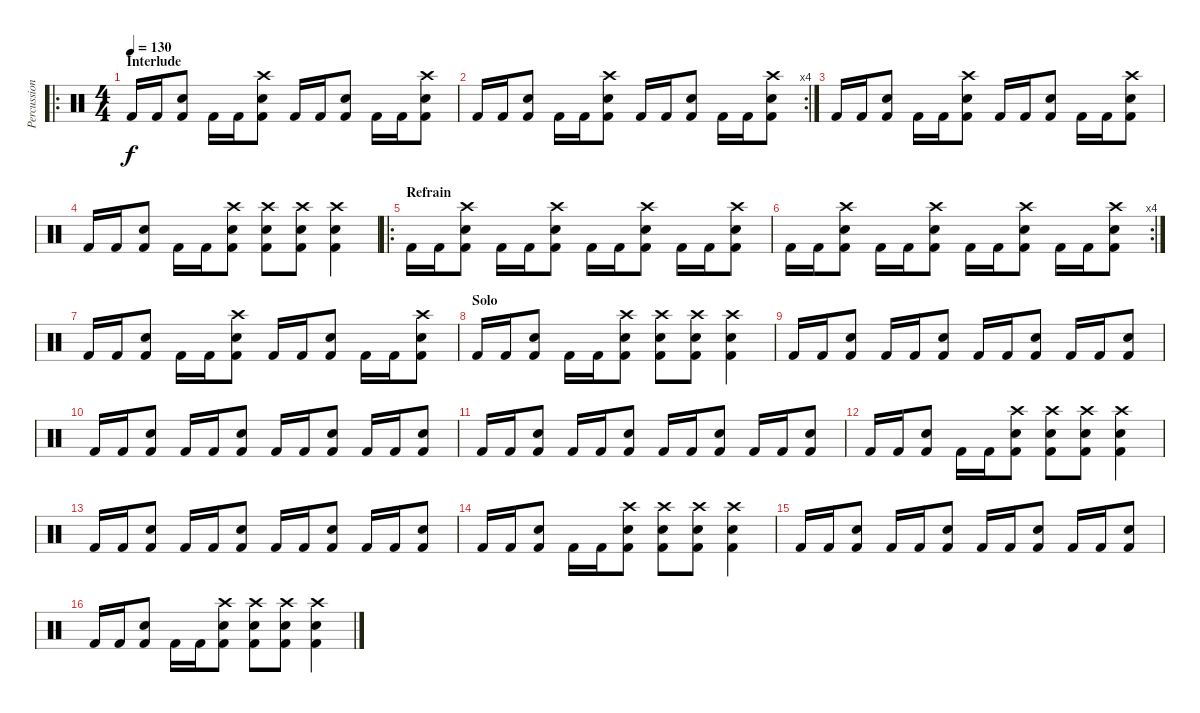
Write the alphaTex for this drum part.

\track ("Percussions" "Percussion") {instrument percussion}
\staff {score}
\articulation defaults
\ro
\ts (4 4)
\section ("" "Interlude")
\tempo 130
\clef neutral
\ks c "Kick (hit) 2".16{dy f} "Kick (hit) 2".16
("Snare (hit) 2" "Kick (hit) 2").8 "Kick (hit) 2".16 "Kick (hit) 2".16 ("Snare (hit) 2" "Kick (hit) 2" "Crash high (hit)").8 "Kick (hit) 2".16 "Kick (hit) 2".16 ("Snare (hit) 2" "Kick (hit) 2").8 "Kick (hit) 2".16 "Kick (hit) 2".16 ("Snare (hit) 2" "Kick (hit) 2" "Crash high (hit)").8 |
\rc 4 "Kick (hit) 2".16 "Kick (hit) 2".16
("Snare (hit) 2" "Kick (hit) 2").8 "Kick (hit) 2".16 "Kick (hit) 2".16 ("Snare (hit) 2" "Kick (hit) 2" "Crash high (hit)").8 "Kick (hit) 2".16 "Kick (hit) 2".16 ("Snare (hit) 2" "Kick (hit) 2").8 "Kick (hit) 2".16 "Kick (hit) 2".16 ("Snare (hit) 2" "Kick (hit) 2" "Crash high (hit)").8 |
"Kick (hit) 2".16 "Kick (hit) 2".16 ("Snare (hit) 2" "Kick (hit) 2").8 "Kick (hit) 2".16 "Kick (hit) 2".16 ("Snare (hit) 2" "Kick (hit) 2" "Crash high (hit)").8 "Kick (hit) 2".16 "Kick (hit) 2".16 ("Snare (hit) 2" "Kick (hit) 2").8 "Kick (hit) 2".16 "Kick (hit) 2".16 ("Snare (hit) 2" "Kick (hit) 2" "Crash high (hit)").8 |
"Kick (hit) 2".16 "Kick (hit) 2".16 ("Snare (hit) 2" "Kick (hit) 2").8 "Kick (hit) 2".16 "Kick (hit) 2".16 ("Snare (hit) 2" "Kick (hit) 2" "Crash high (hit)").8 ("Snare (hit) 2" "Kick (hit) 2" "Crash high (hit)").8 ("Snare (hit) 2" "Kick (hit) 2" "Crash high (hit)").8 ("Snare (hit) 2" "Kick (hit) 2" "Crash high (hit)").4 |
\ro
\section ("" "Refrain")
"Kick (hit) 2".16 "Kick (hit) 2".16 ("Snare (hit) 2" "Kick (hit) 2" "Crash high (hit)").8 "Kick (hit) 2".16 "Kick (hit) 2".16 ("Snare (hit) 2" "Kick (hit) 2" "Crash high (hit)").8 "Kick (hit) 2".16 "Kick (hit) 2".16 ("Snare (hit) 2" "Kick (hit) 2" "Crash high (hit)").8 "Kick (hit) 2".16 "Kick (hit) 2".16 ("Snare (hit) 2" "Kick (hit) 2" "Crash high (hit)").8 |
\rc 4 "Kick (hit) 2".16 "Kick (hit) 2".16
("Snare (hit) 2" "Kick (hit) 2" "Crash high (hit)").8 "Kick (hit) 2".16 "Kick (hit) 2".16 ("Snare (hit) 2" "Kick (hit) 2" "Crash high (hit)").8 "Kick (hit) 2".16 "Kick (hit) 2".16 ("Snare (hit) 2" "Kick (hit) 2" "Crash high (hit)").8 "Kick (hit) 2".16 "Kick (hit) 2".16 ("Snare (hit) 2" "Kick (hit) 2" "Crash high (hit)").8 |
"Kick (hit) 2".16 "Kick (hit) 2".16 ("Snare (hit) 2" "Kick (hit) 2").8 "Kick (hit) 2".16 "Kick (hit) 2".16 ("Snare (hit) 2" "Kick (hit) 2" "Crash high (hit)").8 "Kick (hit) 2".16 "Kick (hit) 2".16 ("Snare (hit) 2" "Kick (hit) 2").8 "Kick (hit) 2".16 "Kick (hit) 2".16 ("Snare (hit) 2" "Kick (hit) 2" "Crash high (hit)").8 |
\section ("" "Solo")
"Kick (hit) 2".16 "Kick (hit) 2".16 ("Snare (hit) 2" "Kick (hit) 2").8 "Kick (hit) 2".16 "Kick (hit) 2".16 ("Snare (hit) 2" "Kick (hit) 2" "Crash high (hit)").8 ("Snare (hit) 2" "Kick (hit) 2" "Crash high (hit)").8 ("Snare (hit) 2" "Kick (hit) 2" "Crash high (hit)").8 ("Snare (hit) 2" "Kick (hit) 2" "Crash high (hit)").4 |
"Kick (hit) 2".16 "Kick (hit) 2".16 ("Snare (hit) 2" "Kick (hit) 2").8 "Kick (hit) 2".16 "Kick (hit) 2".16 ("Snare (hit) 2" "Kick (hit) 2").8 "Kick (hit) 2".16 "Kick (hit) 2".16 ("Snare (hit) 2" "Kick (hit) 2").8 "Kick (hit) 2".16 "Kick (hit) 2".16 ("Snare (hit) 2" "Kick (hit) 2").8 |
"Kick (hit) 2".16 "Kick (hit) 2".16 ("Snare (hit) 2" "Kick (hit) 2").8 "Kick (hit) 2".16 "Kick (hit) 2".16 ("Snare (hit) 2" "Kick (hit) 2").8 "Kick (hit) 2".16 "Kick (hit) 2".16 ("Snare (hit) 2" "Kick (hit) 2").8 "Kick (hit) 2".16 "Kick (hit) 2".16 ("Snare (hit) 2" "Kick (hit) 2").8 |
"Kick (hit) 2".16 "Kick (hit) 2".16 ("Snare (hit) 2" "Kick (hit) 2").8 "Kick (hit) 2".16 "Kick (hit) 2".16 ("Snare (hit) 2" "Kick (hit) 2").8 "Kick (hit) 2".16 "Kick (hit) 2".16 ("Snare (hit) 2" "Kick (hit) 2").8 "Kick (hit) 2".16 "Kick (hit) 2".16 ("Snare (hit) 2" "Kick (hit) 2").8 |
"Kick (hit) 2".16 "Kick (hit) 2".16 ("Snare (hit) 2" "Kick (hit) 2").8 "Kick (hit) 2".16 "Kick (hit) 2".16 ("Snare (hit) 2" "Kick (hit) 2" "Crash high (hit)").8 ("Snare (hit) 2" "Kick (hit) 2" "Crash high (hit)").8 ("Snare (hit) 2" "Kick (hit) 2" "Crash high (hit)").8 ("Snare (hit) 2" "Kick (hit) 2" "Crash high (hit)").4 |
"Kick (hit) 2".16 "Kick (hit) 2".16 ("Snare (hit) 2" "Kick (hit) 2").8 "Kick (hit) 2".16 "Kick (hit) 2".16 ("Snare (hit) 2" "Kick (hit) 2").8 "Kick (hit) 2".16 "Kick (hit) 2".16 ("Snare (hit) 2" "Kick (hit) 2").8 "Kick (hit) 2".16 "Kick (hit) 2".16 ("Snare (hit) 2" "Kick (hit) 2").8 |
"Kick (hit) 2".16 "Kick (hit) 2".16 ("Snare (hit) 2" "Kick (hit) 2").8 "Kick (hit) 2".16 "Kick (hit) 2".16 ("Snare (hit) 2" "Kick (hit) 2" "Crash high (hit)").8 ("Snare (hit) 2" "Kick (hit) 2" "Crash high (hit)").8 ("Snare (hit) 2" "Kick (hit) 2" "Crash high (hit)").8 ("Snare (hit) 2" "Kick (hit) 2" "Crash high (hit)").4 |
"Kick (hit) 2".16 "Kick (hit) 2".16 ("Snare (hit) 2" "Kick (hit) 2").8 "Kick (hit) 2".16 "Kick (hit) 2".16 ("Snare (hit) 2" "Kick (hit) 2").8 "Kick (hit) 2".16 "Kick (hit) 2".16 ("Snare (hit) 2" "Kick (hit) 2").8 "Kick (hit) 2".16 "Kick (hit) 2".16 ("Snare (hit) 2" "Kick (hit) 2").8 |
"Kick (hit) 2".16 "Kick (hit) 2".16 ("Snare (hit) 2" "Kick (hit) 2").8 "Kick (hit) 2".16 "Kick (hit) 2".16 ("Snare (hit) 2" "Kick (hit) 2" "Crash high (hit)").8 ("Snare (hit) 2" "Kick (hit) 2" "Crash high (hit)").8 ("Snare (hit) 2" "Kick (hit) 2" "Crash high (hit)").8 ("Snare (hit) 2" "Kick (hit) 2" "Crash high (hit)").4
